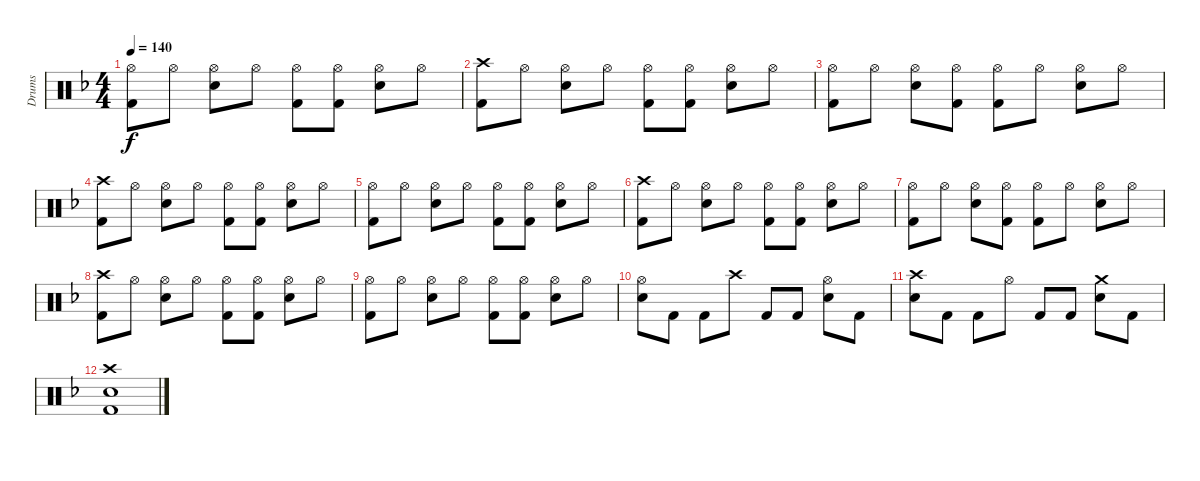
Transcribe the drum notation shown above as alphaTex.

\track ("Drums" "Drums") {instrument percussion}
\staff {score}
\articulation defaults
\ts (4 4)
\tempo 140
\clef neutral
\ks f
("Hi-Hat (open)" "Kick (hit) 2").8{dy f} "Hi-Hat (open)".8 ("Hi-Hat (open)" "Snare (hit) 2").8 "Hi-Hat (open)".8 ("Hi-Hat (open)" "Kick (hit) 2").8 ("Hi-Hat (open)" "Kick (hit) 2").8 ("Hi-Hat (open)" "Snare (hit) 2").8 "Hi-Hat (open)".8 |
("Crash high (hit)" "Kick (hit) 2").8 "Hi-Hat (open)".8 ("Hi-Hat (open)" "Snare (hit) 2").8 "Hi-Hat (open)".8 ("Hi-Hat (open)" "Kick (hit) 2").8 ("Hi-Hat (open)" "Kick (hit) 2").8 ("Hi-Hat (open)" "Snare (hit) 2").8 "Hi-Hat (open)".8 |
("Hi-Hat (open)" "Kick (hit) 2").8 "Hi-Hat (open)".8 ("Hi-Hat (open)" "Snare (hit) 2").8 ("Hi-Hat (open)" "Kick (hit) 2").8 ("Hi-Hat (open)" "Kick (hit) 2").8 "Hi-Hat (open)".8 ("Hi-Hat (open)" "Snare (hit) 2").8 "Hi-Hat (open)".8 |
("Crash high (hit)" "Kick (hit) 2").8 "Hi-Hat (open)".8 ("Hi-Hat (open)" "Snare (hit) 2").8 "Hi-Hat (open)".8 ("Hi-Hat (open)" "Kick (hit) 2").8 ("Hi-Hat (open)" "Kick (hit) 2").8 ("Hi-Hat (open)" "Snare (hit) 2").8 "Hi-Hat (open)".8 |
("Hi-Hat (open)" "Kick (hit) 2").8 "Hi-Hat (open)".8 ("Hi-Hat (open)" "Snare (hit) 2").8 "Hi-Hat (open)".8 ("Hi-Hat (open)" "Kick (hit) 2").8 ("Hi-Hat (open)" "Kick (hit) 2").8 ("Hi-Hat (open)" "Snare (hit) 2").8 "Hi-Hat (open)".8 |
("Crash high (hit)" "Kick (hit) 2").8 "Hi-Hat (open)".8 ("Hi-Hat (open)" "Snare (hit) 2").8 "Hi-Hat (open)".8 ("Hi-Hat (open)" "Kick (hit) 2").8 ("Hi-Hat (open)" "Kick (hit) 2").8 ("Hi-Hat (open)" "Snare (hit) 2").8 "Hi-Hat (open)".8 |
("Hi-Hat (open)" "Kick (hit) 2").8 "Hi-Hat (open)".8 ("Hi-Hat (open)" "Snare (hit) 2").8 ("Hi-Hat (open)" "Kick (hit) 2").8 ("Hi-Hat (open)" "Kick (hit) 2").8 "Hi-Hat (open)".8 ("Hi-Hat (open)" "Snare (hit) 2").8 "Hi-Hat (open)".8 |
("Crash high (hit)" "Kick (hit) 2").8 "Hi-Hat (open)".8 ("Hi-Hat (open)" "Snare (hit) 2").8 "Hi-Hat (open)".8 ("Hi-Hat (open)" "Kick (hit) 2").8 ("Hi-Hat (open)" "Kick (hit) 2").8 ("Hi-Hat (open)" "Snare (hit) 2").8 "Hi-Hat (open)".8 |
("Hi-Hat (open)" "Kick (hit) 2").8 "Hi-Hat (open)".8 ("Hi-Hat (open)" "Snare (hit) 2").8 "Hi-Hat (open)".8 ("Hi-Hat (open)" "Kick (hit) 2").8 ("Hi-Hat (open)" "Kick (hit) 2").8 ("Hi-Hat (open)" "Snare (hit) 2").8 "Hi-Hat (open)".8 |
("Hi-Hat (open)" "Snare (hit) 2").8 "Kick (hit) 2".8 "Kick (hit) 2".8 "Crash high (hit)".8 "Kick (hit) 2".8 "Kick (hit) 2".8 ("Hi-Hat (open)" "Snare (hit) 2").8 "Kick (hit) 2".8 |
("Crash high (hit)" "Snare (hit) 2").8 "Kick (hit) 2".8 "Kick (hit) 2".8 "Hi-Hat (open)".8 "Kick (hit) 2".8 "Kick (hit) 2".8 ("Crash medium (hit)" "Snare (hit) 2").8 "Kick (hit) 2".8 |
("Crash high (hit)" "Snare (hit) 2" "Kick (hit) 2").1
